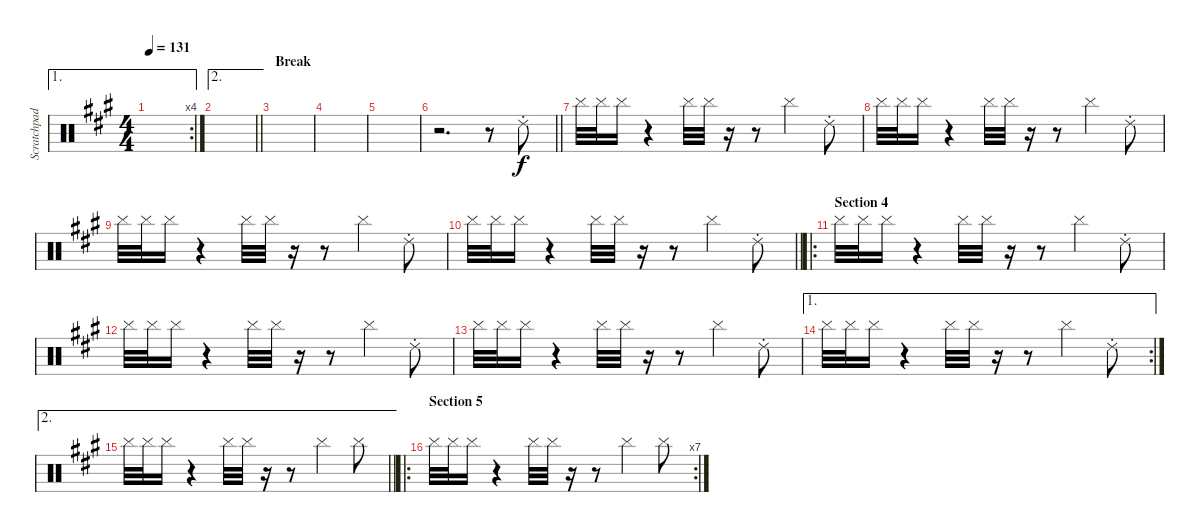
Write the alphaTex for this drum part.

\track ("Scratchpad" "Scratchpad") {instrument percussion bank 2}
\staff {score}
\articulation defaults
\ae 1
\rc 4
\ts (4 4)
\tempo 131
\clef neutral
\ks f#minor
|
\ae 2
\barLineRight lightlight
|
\section ("" "Break")
|
|
|
\barLineRight lightlight
r.2{d} r.8 "Ride (choke) 2".8 |
"Cymbal (hit)".32 "Cymbal (hit)".32 "Cymbal (hit)".16 r.4 "Cymbal (hit)".32 "Cymbal (hit)".32 r.16 r.8 "Cymbal (hit)".4 "Ride (choke) 2".8 |
"Cymbal (hit)".32 "Cymbal (hit)".32 "Cymbal (hit)".16 r.4 "Cymbal (hit)".32 "Cymbal (hit)".32 r.16 r.8 "Cymbal (hit)".4 "Ride (choke) 2".8 |
"Cymbal (hit)".32 "Cymbal (hit)".32 "Cymbal (hit)".16 r.4 "Cymbal (hit)".32 "Cymbal (hit)".32 r.16 r.8 "Cymbal (hit)".4 "Ride (choke) 2".8 |
\barLineRight lightlight "Cymbal (hit)".32 "Cymbal (hit)".32 "Cymbal (hit)".16
r.4 "Cymbal (hit)".32 "Cymbal (hit)".32 r.16 r.8 "Cymbal (hit)".4 "Ride (choke) 2".8 |
\ro
\section ("" "Section 4")
"Cymbal (hit)".32 "Cymbal (hit)".32 "Cymbal (hit)".16 r.4 "Cymbal (hit)".32 "Cymbal (hit)".32 r.16 r.8 "Cymbal (hit)".4 "Ride (choke) 2".8 |
"Cymbal (hit)".32 "Cymbal (hit)".32 "Cymbal (hit)".16 r.4 "Cymbal (hit)".32 "Cymbal (hit)".32 r.16 r.8 "Cymbal (hit)".4 "Ride (choke) 2".8 |
"Cymbal (hit)".32 "Cymbal (hit)".32 "Cymbal (hit)".16 r.4 "Cymbal (hit)".32 "Cymbal (hit)".32 r.16 r.8 "Cymbal (hit)".4 "Ride (choke) 2".8 |
\ae 1
\rc 2 "Cymbal (hit)".32 "Cymbal (hit)".32 "Cymbal (hit)".16
r.4 "Cymbal (hit)".32 "Cymbal (hit)".32 r.16 r.8 "Cymbal (hit)".4 "Ride (choke) 2".8 |
\ae 2
\barLineRight lightlight "Cymbal (hit)".32 "Cymbal (hit)".32 "Cymbal (hit)".16
r.4 "Cymbal (hit)".32 "Cymbal (hit)".32 r.16 r.8 "Cymbal (hit)".4 "Cymbal (hit)".8 |
\ro
\rc 7
\section ("" "Section 5")
"Cymbal (hit)".32 "Cymbal (hit)".32 "Cymbal (hit)".16 r.4 "Cymbal (hit)".32 "Cymbal (hit)".32 r.16 r.8 "Cymbal (hit)".4 "Cymbal (hit)".8
